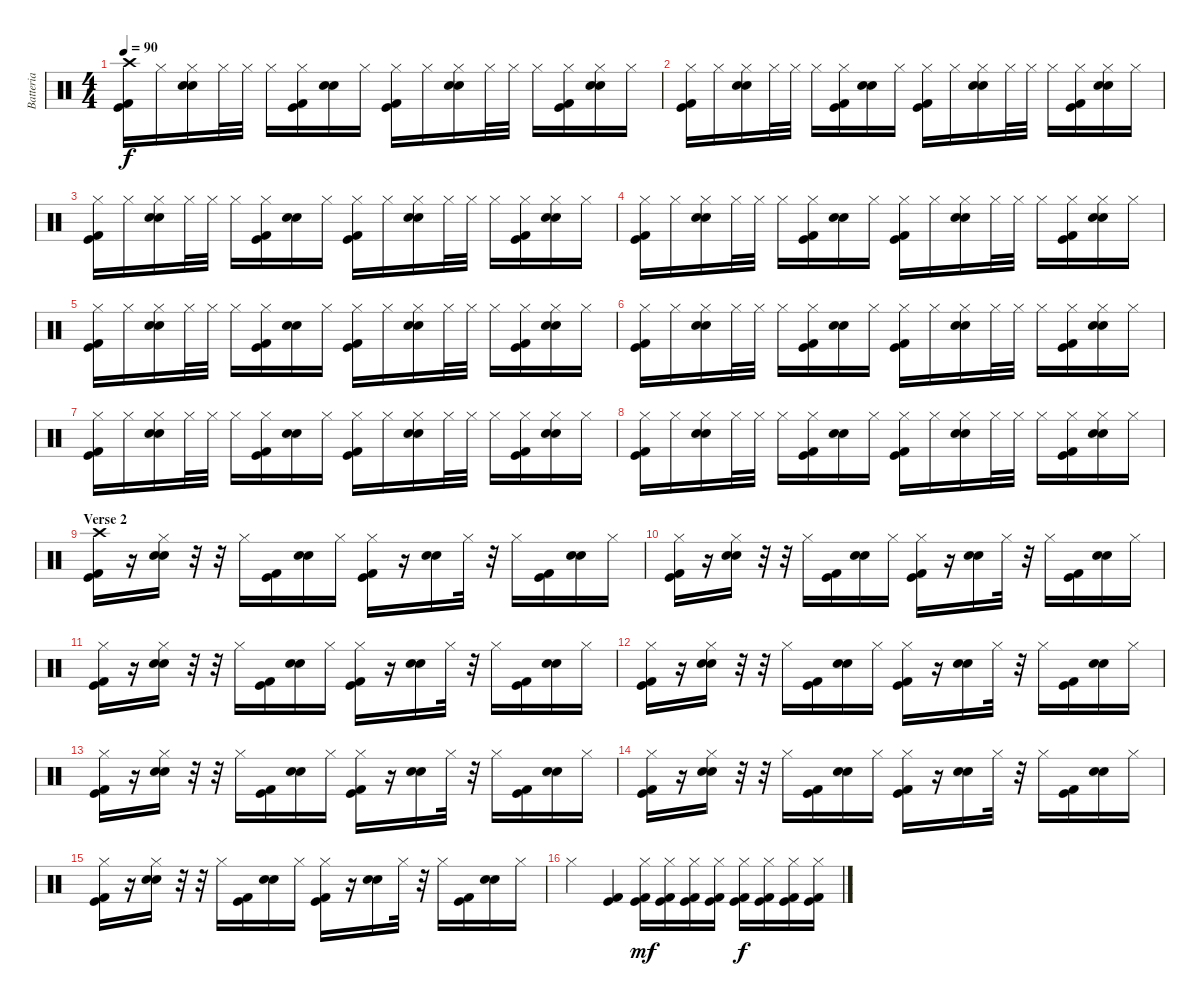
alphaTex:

\track ("Batteria" "Batteria") {instrument percussion}
\staff {score}
\articulation defaults
\ts (4 4)
\tempo 90
\clef neutral
\ks c
("Crash high (hit)" "Kick (hit)" "Kick (hit) 2").16{dy f} "Hi-Hat (closed)".16 ("Hi-Hat (closed)" "Snare (hit) 2" "Electric Snare (hit)").16 "Hi-Hat (closed)".32 "Hi-Hat (closed)".32 "Hi-Hat (closed)".16 ("Hi-Hat (closed)" "Kick (hit) 2" "Kick (hit)").16 ("Snare (hit) 2" "Electric Snare (hit)").16 "Hi-Hat (closed)".16 ("Hi-Hat (closed)" "Kick (hit) 2" "Kick (hit)").16 "Hi-Hat (closed)".16 ("Hi-Hat (closed)" "Snare (hit) 2" "Electric Snare (hit)").16 "Hi-Hat (closed)".32 "Hi-Hat (closed)".32 "Hi-Hat (closed)".16 ("Hi-Hat (closed)" "Kick (hit) 2" "Kick (hit)").16 ("Hi-Hat (closed)" "Snare (hit) 2" "Electric Snare (hit)").16 "Hi-Hat (closed)".16 |
("Hi-Hat (closed)" "Kick (hit)" "Kick (hit) 2").16 "Hi-Hat (closed)".16 ("Hi-Hat (closed)" "Snare (hit) 2" "Electric Snare (hit)").16 "Hi-Hat (closed)".32 "Hi-Hat (closed)".32 "Hi-Hat (closed)".16 ("Hi-Hat (closed)" "Kick (hit) 2" "Kick (hit)").16 ("Snare (hit) 2" "Electric Snare (hit)").16 "Hi-Hat (closed)".16 ("Hi-Hat (closed)" "Kick (hit) 2" "Kick (hit)").16 "Hi-Hat (closed)".16 ("Hi-Hat (closed)" "Snare (hit) 2" "Electric Snare (hit)").16 "Hi-Hat (closed)".32 "Hi-Hat (closed)".32 "Hi-Hat (closed)".16 ("Hi-Hat (closed)" "Kick (hit) 2" "Kick (hit)").16 ("Hi-Hat (closed)" "Snare (hit) 2" "Electric Snare (hit)").16 "Hi-Hat (closed)".16 |
("Hi-Hat (closed)" "Kick (hit)" "Kick (hit) 2").16 "Hi-Hat (closed)".16 ("Hi-Hat (closed)" "Snare (hit) 2" "Electric Snare (hit)").16 "Hi-Hat (closed)".32 "Hi-Hat (closed)".32 "Hi-Hat (closed)".16 ("Hi-Hat (closed)" "Kick (hit) 2" "Kick (hit)").16 ("Snare (hit) 2" "Electric Snare (hit)").16 "Hi-Hat (closed)".16 ("Hi-Hat (closed)" "Kick (hit) 2" "Kick (hit)").16 "Hi-Hat (closed)".16 ("Hi-Hat (closed)" "Snare (hit) 2" "Electric Snare (hit)").16 "Hi-Hat (closed)".32 "Hi-Hat (closed)".32 "Hi-Hat (closed)".16 ("Hi-Hat (closed)" "Kick (hit) 2" "Kick (hit)").16 ("Hi-Hat (closed)" "Snare (hit) 2" "Electric Snare (hit)").16 "Hi-Hat (closed)".16 |
("Hi-Hat (closed)" "Kick (hit)" "Kick (hit) 2").16 "Hi-Hat (closed)".16 ("Hi-Hat (closed)" "Snare (hit) 2" "Electric Snare (hit)").16 "Hi-Hat (closed)".32 "Hi-Hat (closed)".32 "Hi-Hat (closed)".16 ("Hi-Hat (closed)" "Kick (hit) 2" "Kick (hit)").16 ("Snare (hit) 2" "Electric Snare (hit)").16 "Hi-Hat (closed)".16 ("Hi-Hat (closed)" "Kick (hit) 2" "Kick (hit)").16 "Hi-Hat (closed)".16 ("Hi-Hat (closed)" "Snare (hit) 2" "Electric Snare (hit)").16 "Hi-Hat (closed)".32 "Hi-Hat (closed)".32 "Hi-Hat (closed)".16 ("Hi-Hat (closed)" "Kick (hit) 2" "Kick (hit)").16 ("Hi-Hat (closed)" "Snare (hit) 2" "Electric Snare (hit)").16 "Hi-Hat (closed)".16 |
("Hi-Hat (closed)" "Kick (hit)" "Kick (hit) 2").16 "Hi-Hat (closed)".16 ("Hi-Hat (closed)" "Snare (hit) 2" "Electric Snare (hit)").16 "Hi-Hat (closed)".32 "Hi-Hat (closed)".32 "Hi-Hat (closed)".16 ("Hi-Hat (closed)" "Kick (hit) 2" "Kick (hit)").16 ("Snare (hit) 2" "Electric Snare (hit)").16 "Hi-Hat (closed)".16 ("Hi-Hat (closed)" "Kick (hit) 2" "Kick (hit)").16 "Hi-Hat (closed)".16 ("Hi-Hat (closed)" "Snare (hit) 2" "Electric Snare (hit)").16 "Hi-Hat (closed)".32 "Hi-Hat (closed)".32 "Hi-Hat (closed)".16 ("Hi-Hat (closed)" "Kick (hit) 2" "Kick (hit)").16 ("Hi-Hat (closed)" "Snare (hit) 2" "Electric Snare (hit)").16 "Hi-Hat (closed)".16 |
("Hi-Hat (closed)" "Kick (hit)" "Kick (hit) 2").16 "Hi-Hat (closed)".16 ("Hi-Hat (closed)" "Snare (hit) 2" "Electric Snare (hit)").16 "Hi-Hat (closed)".32 "Hi-Hat (closed)".32 "Hi-Hat (closed)".16 ("Hi-Hat (closed)" "Kick (hit) 2" "Kick (hit)").16 ("Snare (hit) 2" "Electric Snare (hit)").16 "Hi-Hat (closed)".16 ("Hi-Hat (closed)" "Kick (hit) 2" "Kick (hit)").16 "Hi-Hat (closed)".16 ("Hi-Hat (closed)" "Snare (hit) 2" "Electric Snare (hit)").16 "Hi-Hat (closed)".32 "Hi-Hat (closed)".32 "Hi-Hat (closed)".16 ("Hi-Hat (closed)" "Kick (hit) 2" "Kick (hit)").16 ("Hi-Hat (closed)" "Snare (hit) 2" "Electric Snare (hit)").16 "Hi-Hat (closed)".16 |
("Hi-Hat (closed)" "Kick (hit)" "Kick (hit) 2").16 "Hi-Hat (closed)".16 ("Hi-Hat (closed)" "Snare (hit) 2" "Electric Snare (hit)").16 "Hi-Hat (closed)".32 "Hi-Hat (closed)".32 "Hi-Hat (closed)".16 ("Hi-Hat (closed)" "Kick (hit) 2" "Kick (hit)").16 ("Snare (hit) 2" "Electric Snare (hit)").16 "Hi-Hat (closed)".16 ("Hi-Hat (closed)" "Kick (hit) 2" "Kick (hit)").16 "Hi-Hat (closed)".16 ("Hi-Hat (closed)" "Snare (hit) 2" "Electric Snare (hit)").16 "Hi-Hat (closed)".32 "Hi-Hat (closed)".32 "Hi-Hat (closed)".16 ("Hi-Hat (closed)" "Kick (hit) 2" "Kick (hit)").16 ("Hi-Hat (closed)" "Snare (hit) 2" "Electric Snare (hit)").16 "Hi-Hat (closed)".16 |
("Hi-Hat (closed)" "Kick (hit)" "Kick (hit) 2").16 "Hi-Hat (closed)".16 ("Hi-Hat (closed)" "Snare (hit) 2" "Electric Snare (hit)").16 "Hi-Hat (closed)".32 "Hi-Hat (closed)".32 "Hi-Hat (closed)".16 ("Hi-Hat (closed)" "Kick (hit) 2" "Kick (hit)").16 ("Snare (hit) 2" "Electric Snare (hit)").16 "Hi-Hat (closed)".16 ("Hi-Hat (closed)" "Kick (hit) 2" "Kick (hit)").16 "Hi-Hat (closed)".16 ("Hi-Hat (closed)" "Snare (hit) 2" "Electric Snare (hit)").16 "Hi-Hat (closed)".32 "Hi-Hat (closed)".32 "Hi-Hat (closed)".16 ("Hi-Hat (closed)" "Kick (hit) 2" "Kick (hit)").16 ("Hi-Hat (closed)" "Snare (hit) 2" "Electric Snare (hit)").16 "Hi-Hat (closed)".16 |
\section ("" "Verse 2")
("Crash high (hit)" "Kick (hit)" "Kick (hit) 2").16 r.16 ("Hi-Hat (closed)" "Snare (hit) 2" "Electric Snare (hit)").16 r.32 r.32 "Hi-Hat (closed)".16 ("Kick (hit) 2" "Kick (hit)").16 ("Snare (hit) 2" "Electric Snare (hit)").16 "Hi-Hat (closed)".16 ("Hi-Hat (closed)" "Kick (hit) 2" "Kick (hit)").16 r.16 ("Snare (hit) 2" "Electric Snare (hit)").16 "Hi-Hat (closed)".32 r.32 "Hi-Hat (closed)".16 ("Kick (hit) 2" "Kick (hit)").16 ("Snare (hit) 2" "Electric Snare (hit)").16 "Hi-Hat (closed)".16 |
("Hi-Hat (closed)" "Kick (hit)" "Kick (hit) 2").16 r.16 ("Hi-Hat (closed)" "Snare (hit) 2" "Electric Snare (hit)").16 r.32 r.32 "Hi-Hat (closed)".16 ("Kick (hit) 2" "Kick (hit)").16 ("Snare (hit) 2" "Electric Snare (hit)").16 "Hi-Hat (closed)".16 ("Hi-Hat (closed)" "Kick (hit) 2" "Kick (hit)").16 r.16 ("Snare (hit) 2" "Electric Snare (hit)").16 "Hi-Hat (closed)".32 r.32 "Hi-Hat (closed)".16 ("Kick (hit) 2" "Kick (hit)").16 ("Snare (hit) 2" "Electric Snare (hit)").16 "Hi-Hat (closed)".16 |
("Hi-Hat (closed)" "Kick (hit)" "Kick (hit) 2").16 r.16 ("Hi-Hat (closed)" "Snare (hit) 2" "Electric Snare (hit)").16 r.32 r.32 "Hi-Hat (closed)".16 ("Kick (hit) 2" "Kick (hit)").16 ("Snare (hit) 2" "Electric Snare (hit)").16 "Hi-Hat (closed)".16 ("Hi-Hat (closed)" "Kick (hit) 2" "Kick (hit)").16 r.16 ("Snare (hit) 2" "Electric Snare (hit)").16 "Hi-Hat (closed)".32 r.32 "Hi-Hat (closed)".16 ("Kick (hit) 2" "Kick (hit)").16 ("Snare (hit) 2" "Electric Snare (hit)").16 "Hi-Hat (closed)".16 |
("Hi-Hat (closed)" "Kick (hit)" "Kick (hit) 2").16 r.16 ("Hi-Hat (closed)" "Snare (hit) 2" "Electric Snare (hit)").16 r.32 r.32 "Hi-Hat (closed)".16 ("Kick (hit) 2" "Kick (hit)").16 ("Snare (hit) 2" "Electric Snare (hit)").16 "Hi-Hat (closed)".16 ("Hi-Hat (closed)" "Kick (hit) 2" "Kick (hit)").16 r.16 ("Snare (hit) 2" "Electric Snare (hit)").16 "Hi-Hat (closed)".32 r.32 "Hi-Hat (closed)".16 ("Kick (hit) 2" "Kick (hit)").16 ("Snare (hit) 2" "Electric Snare (hit)").16 "Hi-Hat (closed)".16 |
("Hi-Hat (closed)" "Kick (hit)" "Kick (hit) 2").16 r.16 ("Hi-Hat (closed)" "Snare (hit) 2" "Electric Snare (hit)").16 r.32 r.32 "Hi-Hat (closed)".16 ("Kick (hit) 2" "Kick (hit)").16 ("Snare (hit) 2" "Electric Snare (hit)").16 "Hi-Hat (closed)".16 ("Hi-Hat (closed)" "Kick (hit) 2" "Kick (hit)").16 r.16 ("Snare (hit) 2" "Electric Snare (hit)").16 "Hi-Hat (closed)".32 r.32 "Hi-Hat (closed)".16 ("Kick (hit) 2" "Kick (hit)").16 ("Snare (hit) 2" "Electric Snare (hit)").16 "Hi-Hat (closed)".16 |
("Hi-Hat (closed)" "Kick (hit)" "Kick (hit) 2").16 r.16 ("Hi-Hat (closed)" "Snare (hit) 2" "Electric Snare (hit)").16 r.32 r.32 "Hi-Hat (closed)".16 ("Kick (hit) 2" "Kick (hit)").16 ("Snare (hit) 2" "Electric Snare (hit)").16 "Hi-Hat (closed)".16 ("Hi-Hat (closed)" "Kick (hit) 2" "Kick (hit)").16 r.16 ("Snare (hit) 2" "Electric Snare (hit)").16 "Hi-Hat (closed)".32 r.32 "Hi-Hat (closed)".16 ("Kick (hit) 2" "Kick (hit)").16 ("Snare (hit) 2" "Electric Snare (hit)").16 "Hi-Hat (closed)".16 |
("Hi-Hat (closed)" "Kick (hit)" "Kick (hit) 2").16 r.16 ("Hi-Hat (closed)" "Snare (hit) 2" "Electric Snare (hit)").16 r.32 r.32 "Hi-Hat (closed)".16 ("Kick (hit) 2" "Kick (hit)").16 ("Snare (hit) 2" "Electric Snare (hit)").16 "Hi-Hat (closed)".16 ("Hi-Hat (closed)" "Kick (hit) 2" "Kick (hit)").16 r.16 ("Snare (hit) 2" "Electric Snare (hit)").16 "Hi-Hat (closed)".32 r.32 "Hi-Hat (closed)".16 ("Kick (hit) 2" "Kick (hit)").16 ("Snare (hit) 2" "Electric Snare (hit)").16 "Hi-Hat (closed)".16 |
"Hi-Hat (closed)".4 ("Kick (hit)" "Kick (hit) 2").4 ("Hi-Hat (closed)" "Kick (hit)" "Kick (hit) 2").16{dy mf} ("Hi-Hat (closed)" "Kick (hit)" "Kick (hit) 2").16 ("Hi-Hat (closed)" "Kick (hit)" "Kick (hit) 2").16 ("Hi-Hat (closed)" "Kick (hit)" "Kick (hit) 2").16 ("Hi-Hat (closed)" "Kick (hit)" "Kick (hit) 2").16{dy f} ("Hi-Hat (closed)" "Kick (hit)" "Kick (hit) 2").16 ("Hi-Hat (closed)" "Kick (hit)" "Kick (hit) 2").16 ("Hi-Hat (closed)" "Kick (hit)" "Kick (hit) 2").16
